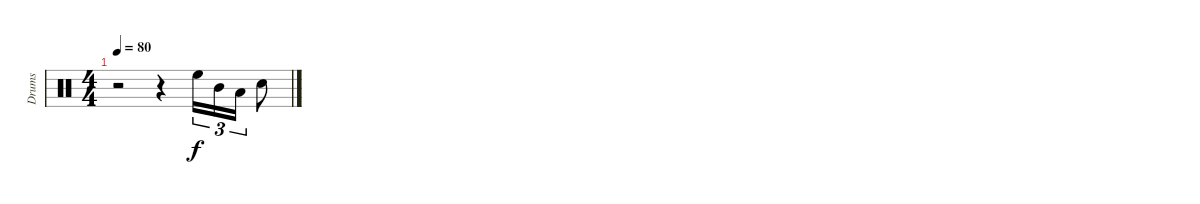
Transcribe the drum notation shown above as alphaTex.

\track ("Drums" "Drums") {instrument percussion}
\staff {score}
\articulation defaults
\ts (4 4)
\tempo 80
\clef neutral
\ks c
r.2{dy f} r.4 "High Floor Tom (hit)".16{tu (3 2)} "Mid Tom (hit)".16{tu (3 2)} "Low Floor Tom (hit)".16{tu (3 2)} "Snare (hit) 2".8
